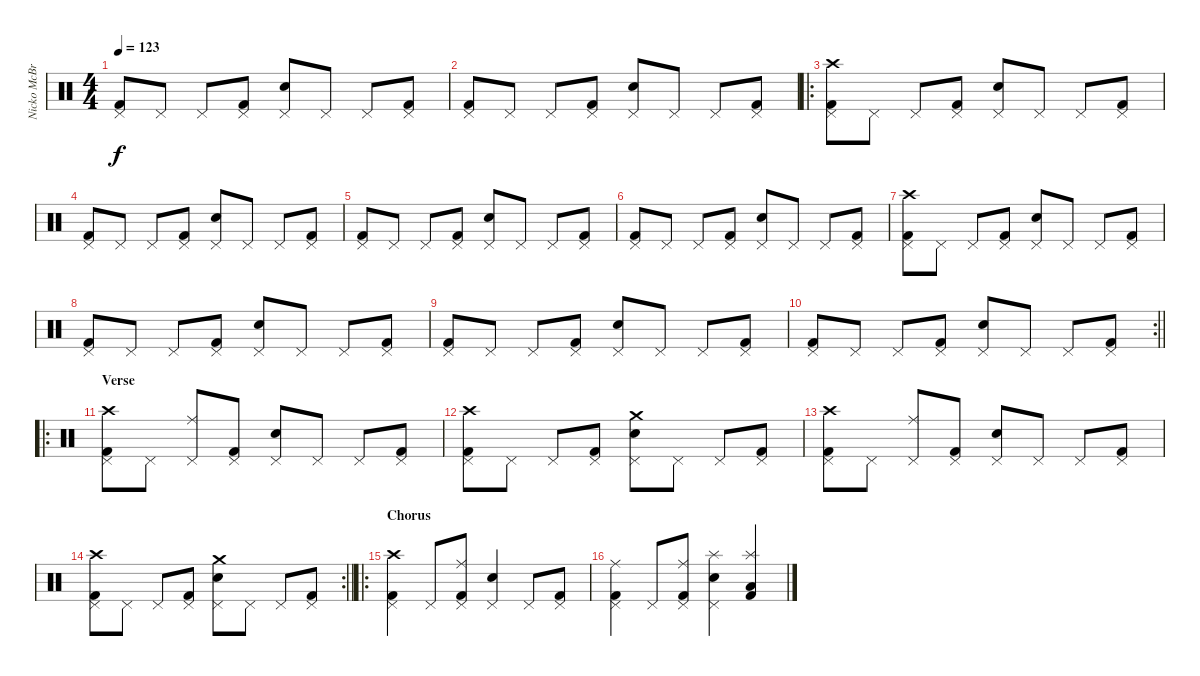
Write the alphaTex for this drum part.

\track ("Nicko McBrain" "Nicko McBr") {instrument percussion}
\staff {score}
\articulation defaults
\ts (4 4)
\tempo 123
\clef neutral
\ks c
("Kick (hit) 2" "Pedal Hi-Hat (hit)").8{dy f} "Pedal Hi-Hat (hit)".8 "Pedal Hi-Hat (hit)".8 ("Kick (hit) 2" "Pedal Hi-Hat (hit)").8 ("Snare (hit) 2" "Pedal Hi-Hat (hit)").8 "Pedal Hi-Hat (hit)".8 "Pedal Hi-Hat (hit)".8 ("Kick (hit) 2" "Pedal Hi-Hat (hit)").8 |
("Kick (hit) 2" "Pedal Hi-Hat (hit)").8 "Pedal Hi-Hat (hit)".8 "Pedal Hi-Hat (hit)".8 ("Kick (hit) 2" "Pedal Hi-Hat (hit)").8 ("Snare (hit) 2" "Pedal Hi-Hat (hit)").8 "Pedal Hi-Hat (hit)".8 "Pedal Hi-Hat (hit)".8 ("Kick (hit) 2" "Pedal Hi-Hat (hit)").8 |
\ro
("Kick (hit) 2" "Pedal Hi-Hat (hit)" "Crash high (hit)").8 "Pedal Hi-Hat (hit)".8 "Pedal Hi-Hat (hit)".8 ("Kick (hit) 2" "Pedal Hi-Hat (hit)").8 ("Snare (hit) 2" "Pedal Hi-Hat (hit)").8 "Pedal Hi-Hat (hit)".8 "Pedal Hi-Hat (hit)".8 ("Kick (hit) 2" "Pedal Hi-Hat (hit)").8 |
("Kick (hit) 2" "Pedal Hi-Hat (hit)").8 "Pedal Hi-Hat (hit)".8 "Pedal Hi-Hat (hit)".8 ("Kick (hit) 2" "Pedal Hi-Hat (hit)").8 ("Snare (hit) 2" "Pedal Hi-Hat (hit)").8 "Pedal Hi-Hat (hit)".8 "Pedal Hi-Hat (hit)".8 ("Kick (hit) 2" "Pedal Hi-Hat (hit)").8 |
("Kick (hit) 2" "Pedal Hi-Hat (hit)").8 "Pedal Hi-Hat (hit)".8 "Pedal Hi-Hat (hit)".8 ("Kick (hit) 2" "Pedal Hi-Hat (hit)").8 ("Snare (hit) 2" "Pedal Hi-Hat (hit)").8 "Pedal Hi-Hat (hit)".8 "Pedal Hi-Hat (hit)".8 ("Kick (hit) 2" "Pedal Hi-Hat (hit)").8 |
("Kick (hit) 2" "Pedal Hi-Hat (hit)").8 "Pedal Hi-Hat (hit)".8 "Pedal Hi-Hat (hit)".8 ("Kick (hit) 2" "Pedal Hi-Hat (hit)").8 ("Snare (hit) 2" "Pedal Hi-Hat (hit)").8 "Pedal Hi-Hat (hit)".8 "Pedal Hi-Hat (hit)".8 ("Kick (hit) 2" "Pedal Hi-Hat (hit)").8 |
("Kick (hit) 2" "Pedal Hi-Hat (hit)" "Crash high (hit)").8 "Pedal Hi-Hat (hit)".8 "Pedal Hi-Hat (hit)".8 ("Kick (hit) 2" "Pedal Hi-Hat (hit)").8 ("Snare (hit) 2" "Pedal Hi-Hat (hit)").8 "Pedal Hi-Hat (hit)".8 "Pedal Hi-Hat (hit)".8 ("Kick (hit) 2" "Pedal Hi-Hat (hit)").8 |
("Kick (hit) 2" "Pedal Hi-Hat (hit)").8 "Pedal Hi-Hat (hit)".8 "Pedal Hi-Hat (hit)".8 ("Kick (hit) 2" "Pedal Hi-Hat (hit)").8 ("Snare (hit) 2" "Pedal Hi-Hat (hit)").8 "Pedal Hi-Hat (hit)".8 "Pedal Hi-Hat (hit)".8 ("Kick (hit) 2" "Pedal Hi-Hat (hit)").8 |
("Kick (hit) 2" "Pedal Hi-Hat (hit)").8 "Pedal Hi-Hat (hit)".8 "Pedal Hi-Hat (hit)".8 ("Kick (hit) 2" "Pedal Hi-Hat (hit)").8 ("Snare (hit) 2" "Pedal Hi-Hat (hit)").8 "Pedal Hi-Hat (hit)".8 "Pedal Hi-Hat (hit)".8 ("Kick (hit) 2" "Pedal Hi-Hat (hit)").8 |
\rc 2
\barLineRight lightlight
("Kick (hit) 2" "Pedal Hi-Hat (hit)").8 "Pedal Hi-Hat (hit)".8 "Pedal Hi-Hat (hit)".8 ("Kick (hit) 2" "Pedal Hi-Hat (hit)").8 ("Snare (hit) 2" "Pedal Hi-Hat (hit)").8 "Pedal Hi-Hat (hit)".8 "Pedal Hi-Hat (hit)".8 ("Kick (hit) 2" "Pedal Hi-Hat (hit)").8 |
\ro
\section ("" "Verse")
("Kick (hit) 2" "Pedal Hi-Hat (hit)" "Crash high (hit)").8 "Pedal Hi-Hat (hit)".8 ("Pedal Hi-Hat (hit)" "Ride (middle)").8 ("Kick (hit) 2" "Pedal Hi-Hat (hit)").8 ("Snare (hit) 2" "Pedal Hi-Hat (hit)").8 "Pedal Hi-Hat (hit)".8 "Pedal Hi-Hat (hit)".8 ("Kick (hit) 2" "Pedal Hi-Hat (hit)").8 |
("Kick (hit) 2" "Pedal Hi-Hat (hit)" "Crash high (hit)").8 "Pedal Hi-Hat (hit)".8 "Pedal Hi-Hat (hit)".8 ("Kick (hit) 2" "Pedal Hi-Hat (hit)").8 ("Snare (hit) 2" "Pedal Hi-Hat (hit)" "Crash medium (hit)").8 "Pedal Hi-Hat (hit)".8 "Pedal Hi-Hat (hit)".8 ("Kick (hit) 2" "Pedal Hi-Hat (hit)").8 |
("Kick (hit) 2" "Pedal Hi-Hat (hit)" "Crash high (hit)").8 "Pedal Hi-Hat (hit)".8 ("Pedal Hi-Hat (hit)" "Ride (middle)").8 ("Kick (hit) 2" "Pedal Hi-Hat (hit)").8 ("Snare (hit) 2" "Pedal Hi-Hat (hit)").8 "Pedal Hi-Hat (hit)".8 "Pedal Hi-Hat (hit)".8 ("Kick (hit) 2" "Pedal Hi-Hat (hit)").8 |
\rc 2
\barLineRight lightlight
("Kick (hit) 2" "Pedal Hi-Hat (hit)" "Crash high (hit)").8 "Pedal Hi-Hat (hit)".8 "Pedal Hi-Hat (hit)".8 ("Kick (hit) 2" "Pedal Hi-Hat (hit)").8 ("Snare (hit) 2" "Pedal Hi-Hat (hit)" "Crash medium (hit)").8 "Pedal Hi-Hat (hit)".8 "Pedal Hi-Hat (hit)".8 ("Kick (hit) 2" "Pedal Hi-Hat (hit)").8 |
\ro
\section ("" "Chorus")
("Kick (hit) 2" "Pedal Hi-Hat (hit)" "Crash high (hit)").4 "Pedal Hi-Hat (hit)".8 ("Kick (hit) 2" "Pedal Hi-Hat (hit)" "Ride (middle)").8 ("Snare (hit) 2" "Pedal Hi-Hat (hit)").4 "Pedal Hi-Hat (hit)".8 ("Kick (hit) 2" "Pedal Hi-Hat (hit)").8 |
("Kick (hit) 2" "Pedal Hi-Hat (hit)" "Ride (middle)").4 "Pedal Hi-Hat (hit)".8 ("Kick (hit) 2" "Pedal Hi-Hat (hit)" "Ride (middle)").8 ("Snare (hit) 2" "Pedal Hi-Hat (hit)" "Splash (hit)").4 ("Kick (hit) 2" "Low Tom (hit)" "Splash (hit)").4
